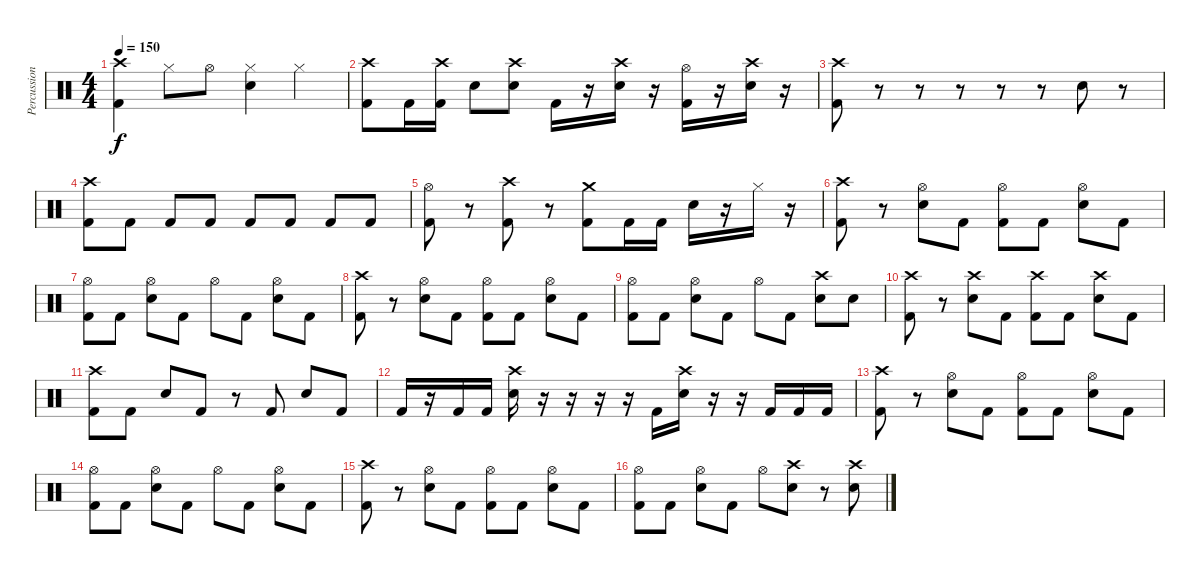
\track ("Percussion" "Percussion") {instrument percussion}
\staff {score}
\articulation defaults
\ts (4 4)
\tempo 150
\clef neutral
\ks c
("Crash high (hit)" "Kick (hit) 2").4{dy f} "Hi-Hat (closed)".8 "Hi-Hat (open)".8 ("Hi-Hat (closed)" "Snare (hit) 2").4 "Hi-Hat (closed)".4 |
("Crash high (hit)" "Kick (hit) 2").8 "Kick (hit) 2".16 ("Crash high (hit)" "Kick (hit) 2").16 "Snare (hit) 2".8 ("Crash high (hit)" "Snare (hit) 2").8 "Kick (hit) 2".16 r.16 ("Crash high (hit)" "Snare (hit) 2").16 r.16 ("Hi-Hat (open)" "Kick (hit) 2").16 r.16 ("Crash high (hit)" "Snare (hit) 2").16 r.16 |
("Crash high (hit)" "Kick (hit) 2").8 r.8 r.8 r.8 r.8 r.8 "Snare (hit) 2".8 r.8 |
("Crash high (hit)" "Kick (hit) 2").8 "Kick (hit) 2".8 "Kick (hit) 2".8 "Kick (hit) 2".8 "Kick (hit) 2".8 "Kick (hit) 2".8 "Kick (hit) 2".8 "Kick (hit) 2".8 |
("Hi-Hat (open)" "Kick (hit) 2").8 r.8 ("Crash high (hit)" "Kick (hit) 2").8 r.8 ("Crash medium (hit)" "Kick (hit) 2").8 "Kick (hit) 2".16 "Kick (hit) 2".16 "Snare (hit) 2".16 r.16 "Hi-Hat (closed)".16 r.16 |
("Crash high (hit)" "Kick (hit) 2").8 r.8 ("Hi-Hat (open)" "Snare (hit) 2").8 "Kick (hit) 2".8 ("Hi-Hat (open)" "Kick (hit) 2").8 "Kick (hit) 2".8 ("Hi-Hat (open)" "Snare (hit) 2").8 "Kick (hit) 2".8 |
("Hi-Hat (open)" "Kick (hit) 2").8 "Kick (hit) 2".8 ("Hi-Hat (open)" "Snare (hit) 2").8 "Kick (hit) 2".8 "Hi-Hat (open)".8 "Kick (hit) 2".8 ("Hi-Hat (open)" "Snare (hit) 2").8 "Kick (hit) 2".8 |
("Crash high (hit)" "Kick (hit) 2").8 r.8 ("Hi-Hat (open)" "Snare (hit) 2").8 "Kick (hit) 2".8 ("Hi-Hat (open)" "Kick (hit) 2").8 "Kick (hit) 2".8 ("Hi-Hat (open)" "Snare (hit) 2").8 "Kick (hit) 2".8 |
("Hi-Hat (open)" "Kick (hit) 2").8 "Kick (hit) 2".8 ("Hi-Hat (open)" "Snare (hit) 2").8 "Kick (hit) 2".8 "Hi-Hat (open)".8 "Kick (hit) 2".8 ("Crash high (hit)" "Snare (hit) 2").8 "Snare (hit) 2".8 |
("Crash high (hit)" "Kick (hit) 2").8 r.8 ("Crash high (hit)" "Snare (hit) 2").8 "Kick (hit) 2".8 ("Crash high (hit)" "Kick (hit) 2").8 "Kick (hit) 2".8 ("Crash high (hit)" "Snare (hit) 2").8 "Kick (hit) 2".8 |
("Crash high (hit)" "Kick (hit) 2").8 "Kick (hit) 2".8 "Snare (hit) 2".8 "Kick (hit) 2".8 r.8 "Kick (hit) 2".8 "Snare (hit) 2".8 "Kick (hit) 2".8 |
"Kick (hit) 2".16 r.16 "Kick (hit) 2".16 "Kick (hit) 2".16 ("Crash high (hit)" "Snare (hit) 2").16 r.16 r.16 r.16 r.16 "Kick (hit) 2".16 ("Crash high (hit)" "Snare (hit) 2").16 r.16 r.16 "Kick (hit) 2".16 "Kick (hit) 2".16 "Kick (hit) 2".16 |
("Crash high (hit)" "Kick (hit) 2").8 r.8 ("Hi-Hat (open)" "Snare (hit) 2").8 "Kick (hit) 2".8 ("Hi-Hat (open)" "Kick (hit) 2").8 "Kick (hit) 2".8 ("Hi-Hat (open)" "Snare (hit) 2").8 "Kick (hit) 2".8 |
("Hi-Hat (open)" "Kick (hit) 2").8 "Kick (hit) 2".8 ("Hi-Hat (open)" "Snare (hit) 2").8 "Kick (hit) 2".8 "Hi-Hat (open)".8 "Kick (hit) 2".8 ("Hi-Hat (open)" "Snare (hit) 2").8 "Kick (hit) 2".8 |
("Crash high (hit)" "Kick (hit) 2").8 r.8 ("Hi-Hat (open)" "Snare (hit) 2").8 "Kick (hit) 2".8 ("Hi-Hat (open)" "Kick (hit) 2").8 "Kick (hit) 2".8 ("Hi-Hat (open)" "Snare (hit) 2").8 "Kick (hit) 2".8 |
("Hi-Hat (open)" "Kick (hit) 2").8 "Kick (hit) 2".8 ("Hi-Hat (open)" "Snare (hit) 2").8 "Kick (hit) 2".8 "Hi-Hat (open)".8 ("Crash high (hit)" "Snare (hit) 2").8 r.8 ("Crash high (hit)" "Snare (hit) 2").8
